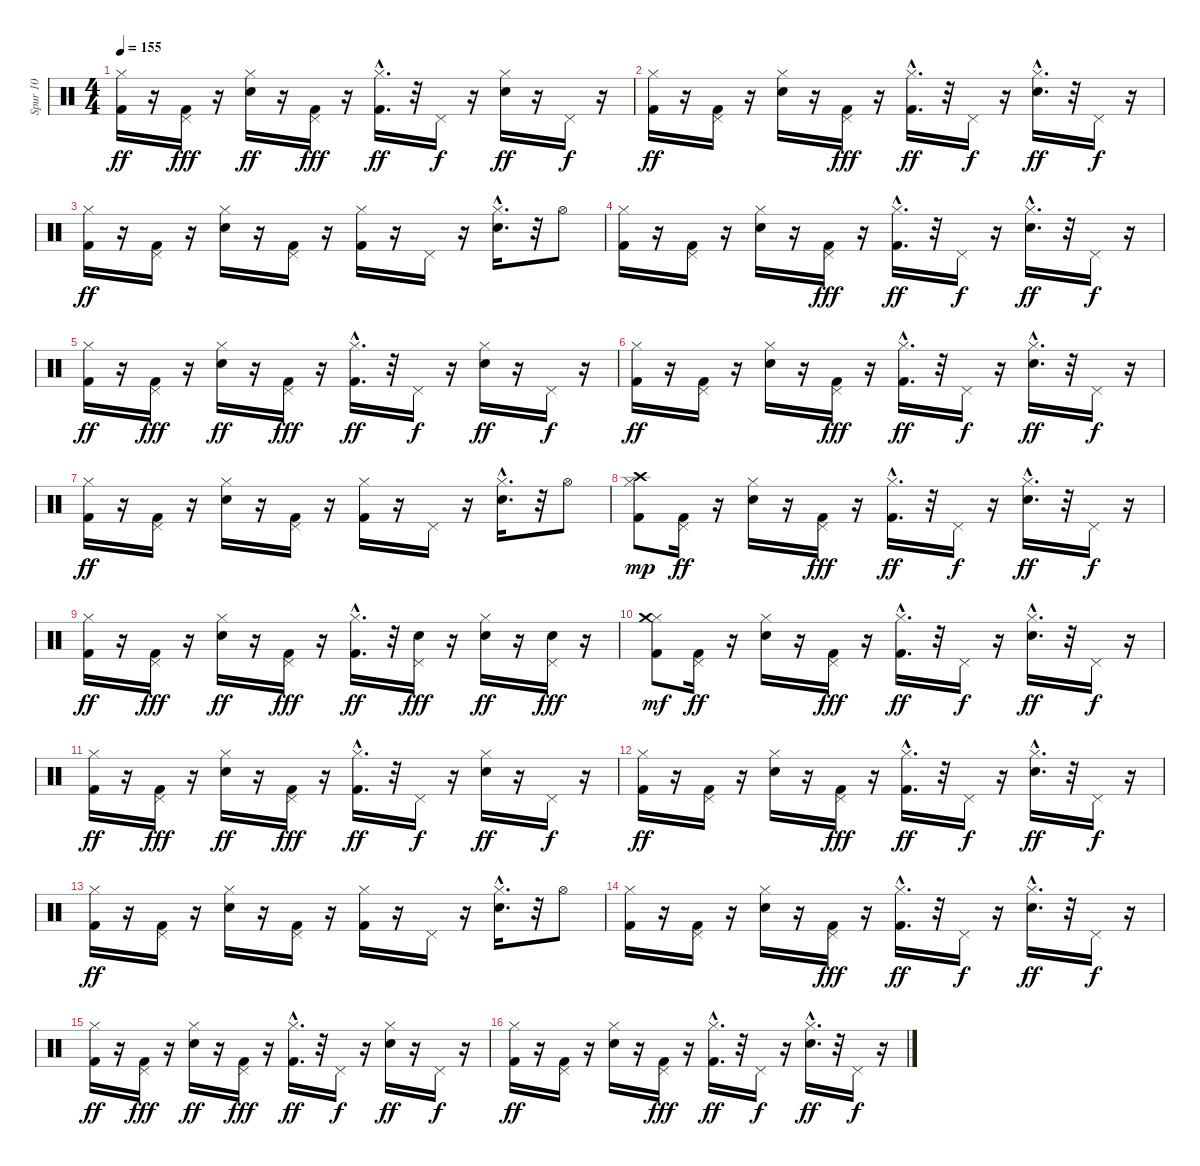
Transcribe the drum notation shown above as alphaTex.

\track ("Spur 10" "Spur 10") {instrument percussion}
\staff {score}
\articulation defaults
\ts (4 4)
\tempo 155
\clef neutral
\ks c
("Kick (hit) 2" "Hi-Hat (closed)").16{dy ff} r.16 ("Kick (hit) 2" "Pedal Hi-Hat (hit)").16{dy fff} r.16 ("Snare (hit) 2" "Hi-Hat (closed)").16{dy ff} r.16 ("Kick (hit) 2" "Pedal Hi-Hat (hit)").16{dy fff} r.16 ("Kick (hit) 2"{hac} "Hi-Hat (closed)").16{d dy ff} r.32 "Pedal Hi-Hat (hit)".16{dy f} r.16 ("Snare (hit) 2" "Hi-Hat (closed)").16{dy ff} r.16 "Pedal Hi-Hat (hit)".16{dy f} r.16 |
("Kick (hit) 2" "Hi-Hat (closed)").16{dy ff} r.16 ("Kick (hit) 2" "Pedal Hi-Hat (hit)").16 r.16 ("Snare (hit) 2" "Hi-Hat (closed)").16 r.16 ("Kick (hit) 2" "Pedal Hi-Hat (hit)").16{dy fff} r.16 ("Kick (hit) 2"{hac} "Hi-Hat (closed)").16{d dy ff} r.32 "Pedal Hi-Hat (hit)".16{dy f} r.16 ("Snare (hit) 2"{hac} "Hi-Hat (closed)").16{d dy ff} r.32 "Pedal Hi-Hat (hit)".16{dy f} r.16 |
("Kick (hit) 2" "Hi-Hat (closed)").16{dy ff} r.16 ("Kick (hit) 2" "Pedal Hi-Hat (hit)").16 r.16 ("Snare (hit) 2" "Hi-Hat (closed)").16 r.16 ("Kick (hit) 2" "Pedal Hi-Hat (hit)").16 r.16 ("Kick (hit) 2" "Hi-Hat (closed)").16 r.16 "Pedal Hi-Hat (hit)".16 r.16 ("Snare (hit) 2"{hac} "Hi-Hat (closed)").16{d} r.32 "Hi-Hat (open)".8 |
("Kick (hit) 2" "Hi-Hat (closed)").16 r.16 ("Kick (hit) 2" "Pedal Hi-Hat (hit)").16 r.16 ("Snare (hit) 2" "Hi-Hat (closed)").16 r.16 ("Kick (hit) 2" "Pedal Hi-Hat (hit)").16{dy fff} r.16 ("Kick (hit) 2"{hac} "Hi-Hat (closed)").16{d dy ff} r.32 "Pedal Hi-Hat (hit)".16{dy f} r.16 ("Snare (hit) 2"{hac} "Hi-Hat (closed)").16{d dy ff} r.32 "Pedal Hi-Hat (hit)".16{dy f} r.16 |
("Kick (hit) 2" "Hi-Hat (closed)").16{dy ff} r.16 ("Kick (hit) 2" "Pedal Hi-Hat (hit)").16{dy fff} r.16 ("Snare (hit) 2" "Hi-Hat (closed)").16{dy ff} r.16 ("Kick (hit) 2" "Pedal Hi-Hat (hit)").16{dy fff} r.16 ("Kick (hit) 2"{hac} "Hi-Hat (closed)").16{d dy ff} r.32 "Pedal Hi-Hat (hit)".16{dy f} r.16 ("Snare (hit) 2" "Hi-Hat (closed)").16{dy ff} r.16 "Pedal Hi-Hat (hit)".16{dy f} r.16 |
("Kick (hit) 2" "Hi-Hat (closed)").16{dy ff} r.16 ("Kick (hit) 2" "Pedal Hi-Hat (hit)").16 r.16 ("Snare (hit) 2" "Hi-Hat (closed)").16 r.16 ("Kick (hit) 2" "Pedal Hi-Hat (hit)").16{dy fff} r.16 ("Kick (hit) 2"{hac} "Hi-Hat (closed)").16{d dy ff} r.32 "Pedal Hi-Hat (hit)".16{dy f} r.16 ("Snare (hit) 2"{hac} "Hi-Hat (closed)").16{d dy ff} r.32 "Pedal Hi-Hat (hit)".16{dy f} r.16 |
("Kick (hit) 2" "Hi-Hat (closed)").16{dy ff} r.16 ("Kick (hit) 2" "Pedal Hi-Hat (hit)").16 r.16 ("Snare (hit) 2" "Hi-Hat (closed)").16 r.16 ("Kick (hit) 2" "Pedal Hi-Hat (hit)").16 r.16 ("Kick (hit) 2" "Hi-Hat (closed)").16 r.16 "Pedal Hi-Hat (hit)".16 r.16 ("Snare (hit) 2"{hac} "Hi-Hat (closed)").16{d} r.32 "Hi-Hat (open)".8 |
("Kick (hit) 2" "Hi-Hat (closed)" "Crash high (hit)").8{dy mp} ("Kick (hit) 2" "Pedal Hi-Hat (hit)").16{dy ff} r.16 ("Snare (hit) 2" "Hi-Hat (closed)").16 r.16 ("Kick (hit) 2" "Pedal Hi-Hat (hit)").16{dy fff} r.16 ("Kick (hit) 2"{hac} "Hi-Hat (closed)").16{d dy ff} r.32 "Pedal Hi-Hat (hit)".16{dy f} r.16 ("Snare (hit) 2"{hac} "Hi-Hat (closed)").16{d dy ff} r.32 "Pedal Hi-Hat (hit)".16{dy f} r.16 |
("Kick (hit) 2" "Hi-Hat (closed)").16{dy ff} r.16 ("Kick (hit) 2" "Pedal Hi-Hat (hit)").16{dy fff} r.16 ("Snare (hit) 2" "Hi-Hat (closed)").16{dy ff} r.16 ("Kick (hit) 2" "Pedal Hi-Hat (hit)").16{dy fff} r.16 ("Kick (hit) 2"{hac} "Hi-Hat (closed)").16{d dy ff} r.32 ("Pedal Hi-Hat (hit)" "Snare (hit) 2").16{dy fff} r.16 ("Snare (hit) 2" "Hi-Hat (closed)").16{dy ff} r.16 ("Pedal Hi-Hat (hit)" "Snare (hit) 2").16{dy fff} r.16 |
("Kick (hit) 2" "Hi-Hat (closed)" "Crash medium (hit)").8{dy mf} ("Kick (hit) 2" "Pedal Hi-Hat (hit)").16{dy ff} r.16 ("Snare (hit) 2" "Hi-Hat (closed)").16 r.16 ("Kick (hit) 2" "Pedal Hi-Hat (hit)").16{dy fff} r.16 ("Kick (hit) 2"{hac} "Hi-Hat (closed)").16{d dy ff} r.32 "Pedal Hi-Hat (hit)".16{dy f} r.16 ("Snare (hit) 2"{hac} "Hi-Hat (closed)").16{d dy ff} r.32 "Pedal Hi-Hat (hit)".16{dy f} r.16 |
("Kick (hit) 2" "Hi-Hat (closed)").16{dy ff} r.16 ("Kick (hit) 2" "Pedal Hi-Hat (hit)").16{dy fff} r.16 ("Snare (hit) 2" "Hi-Hat (closed)").16{dy ff} r.16 ("Kick (hit) 2" "Pedal Hi-Hat (hit)").16{dy fff} r.16 ("Kick (hit) 2"{hac} "Hi-Hat (closed)").16{d dy ff} r.32 "Pedal Hi-Hat (hit)".16{dy f} r.16 ("Snare (hit) 2" "Hi-Hat (closed)").16{dy ff} r.16 "Pedal Hi-Hat (hit)".16{dy f} r.16 |
("Kick (hit) 2" "Hi-Hat (closed)").16{dy ff} r.16 ("Kick (hit) 2" "Pedal Hi-Hat (hit)").16 r.16 ("Snare (hit) 2" "Hi-Hat (closed)").16 r.16 ("Kick (hit) 2" "Pedal Hi-Hat (hit)").16{dy fff} r.16 ("Kick (hit) 2"{hac} "Hi-Hat (closed)").16{d dy ff} r.32 "Pedal Hi-Hat (hit)".16{dy f} r.16 ("Snare (hit) 2"{hac} "Hi-Hat (closed)").16{d dy ff} r.32 "Pedal Hi-Hat (hit)".16{dy f} r.16 |
("Kick (hit) 2" "Hi-Hat (closed)").16{dy ff} r.16 ("Kick (hit) 2" "Pedal Hi-Hat (hit)").16 r.16 ("Snare (hit) 2" "Hi-Hat (closed)").16 r.16 ("Kick (hit) 2" "Pedal Hi-Hat (hit)").16 r.16 ("Kick (hit) 2" "Hi-Hat (closed)").16 r.16 "Pedal Hi-Hat (hit)".16 r.16 ("Snare (hit) 2"{hac} "Hi-Hat (closed)").16{d} r.32 "Hi-Hat (open)".8 |
("Kick (hit) 2" "Hi-Hat (closed)").16 r.16 ("Kick (hit) 2" "Pedal Hi-Hat (hit)").16 r.16 ("Snare (hit) 2" "Hi-Hat (closed)").16 r.16 ("Kick (hit) 2" "Pedal Hi-Hat (hit)").16{dy fff} r.16 ("Kick (hit) 2"{hac} "Hi-Hat (closed)").16{d dy ff} r.32 "Pedal Hi-Hat (hit)".16{dy f} r.16 ("Snare (hit) 2"{hac} "Hi-Hat (closed)").16{d dy ff} r.32 "Pedal Hi-Hat (hit)".16{dy f} r.16 |
("Kick (hit) 2" "Hi-Hat (closed)").16{dy ff} r.16 ("Kick (hit) 2" "Pedal Hi-Hat (hit)").16{dy fff} r.16 ("Snare (hit) 2" "Hi-Hat (closed)").16{dy ff} r.16 ("Kick (hit) 2" "Pedal Hi-Hat (hit)").16{dy fff} r.16 ("Kick (hit) 2"{hac} "Hi-Hat (closed)").16{d dy ff} r.32 "Pedal Hi-Hat (hit)".16{dy f} r.16 ("Snare (hit) 2" "Hi-Hat (closed)").16{dy ff} r.16 "Pedal Hi-Hat (hit)".16{dy f} r.16 |
("Kick (hit) 2" "Hi-Hat (closed)").16{dy ff} r.16 ("Kick (hit) 2" "Pedal Hi-Hat (hit)").16 r.16 ("Snare (hit) 2" "Hi-Hat (closed)").16 r.16 ("Kick (hit) 2" "Pedal Hi-Hat (hit)").16{dy fff} r.16 ("Kick (hit) 2"{hac} "Hi-Hat (closed)").16{d dy ff} r.32 "Pedal Hi-Hat (hit)".16{dy f} r.16 ("Snare (hit) 2"{hac} "Hi-Hat (closed)").16{d dy ff} r.32 "Pedal Hi-Hat (hit)".16{dy f} r.16
